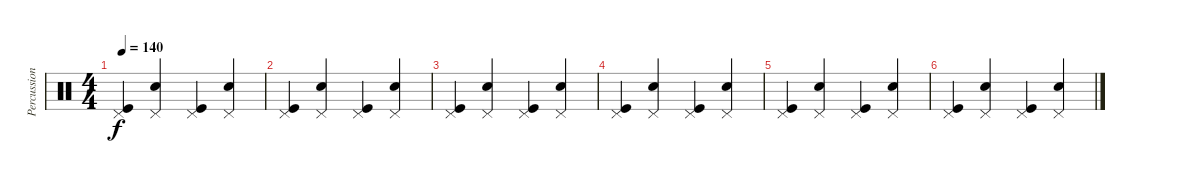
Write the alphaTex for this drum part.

\track ("Percussion" "Percussion") {instrument percussion}
\staff {score}
\articulation defaults
\ts (4 4)
\tempo 140
\clef neutral
\ks c
("Kick (hit)" "Pedal Hi-Hat (hit)").4{dy f} ("Snare (hit) 2" "Pedal Hi-Hat (hit)").4 ("Kick (hit)" "Pedal Hi-Hat (hit)").4 ("Snare (hit) 2" "Pedal Hi-Hat (hit)").4 |
("Kick (hit)" "Pedal Hi-Hat (hit)").4 ("Snare (hit) 2" "Pedal Hi-Hat (hit)").4 ("Kick (hit)" "Pedal Hi-Hat (hit)").4 ("Snare (hit) 2" "Pedal Hi-Hat (hit)").4 |
("Kick (hit)" "Pedal Hi-Hat (hit)").4 ("Snare (hit) 2" "Pedal Hi-Hat (hit)").4 ("Kick (hit)" "Pedal Hi-Hat (hit)").4 ("Snare (hit) 2" "Pedal Hi-Hat (hit)").4 |
("Kick (hit)" "Pedal Hi-Hat (hit)").4 ("Snare (hit) 2" "Pedal Hi-Hat (hit)").4 ("Kick (hit)" "Pedal Hi-Hat (hit)").4 ("Snare (hit) 2" "Pedal Hi-Hat (hit)").4 |
("Kick (hit)" "Pedal Hi-Hat (hit)").4 ("Snare (hit) 2" "Pedal Hi-Hat (hit)").4 ("Kick (hit)" "Pedal Hi-Hat (hit)").4 ("Snare (hit) 2" "Pedal Hi-Hat (hit)").4 |
("Kick (hit)" "Pedal Hi-Hat (hit)").4 ("Snare (hit) 2" "Pedal Hi-Hat (hit)").4 ("Kick (hit)" "Pedal Hi-Hat (hit)").4 ("Snare (hit) 2" "Pedal Hi-Hat (hit)").4
